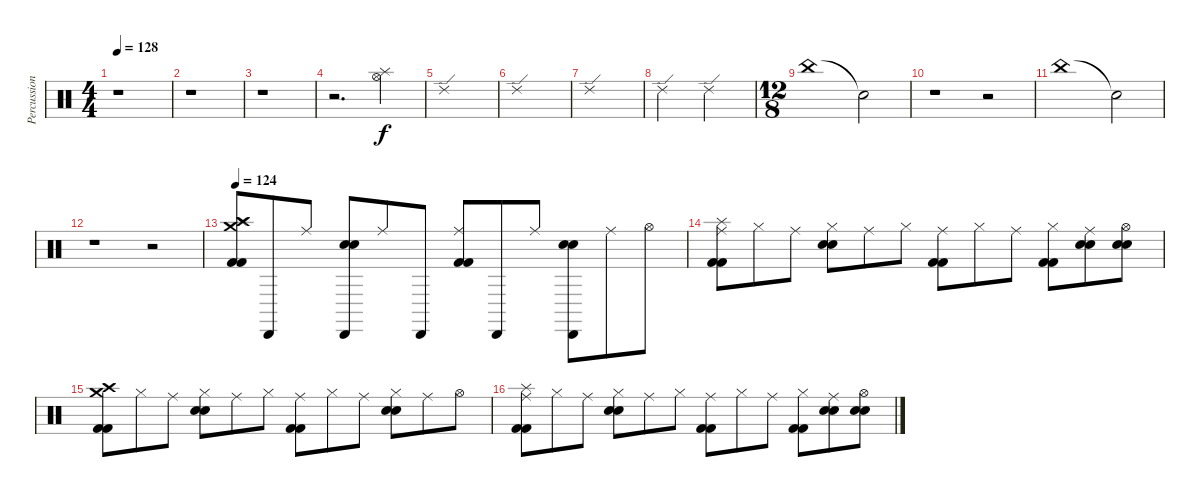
\track ("Percussioni" "Percussion") {instrument percussion}
\staff {score}
\articulation defaults
\ts (4 4)
\tempo 128
\clef neutral
\ks c
r.1{dy f} |
r.1 |
r.1 |
r.2{d} ("Hi-Hat (open)" "Splash (hit)").4 |
"Ride (edge) 2".1 |
"Ride (edge) 2".1 |
"Ride (edge) 2".1 |
"Ride (edge) 2".2 "Ride (edge) 2".2 |
\ts (12 8)
"China (hit)".1 "Snare (hit)"{t}.2 |
r.1 r.2 |
"China (hit)".1 "Snare (hit)"{t}.2 |
r.1 r.2 |
\tempo 120
\tempo 124
("Crash high (hit)" "Crash medium (hit)" "Splash (hit)" "Kick (hit) 2" "Kick (hit) 2").8 "Cabasa (hit)".8 "Ride (middle)".8 ("Cabasa (hit)" "Snare (hit) 2" "Electric Snare (hit)").8 "Ride (middle)".8 "Cabasa (hit)".8 ("Ride (middle)" "Kick (hit) 2" "Kick (hit) 2").8 "Cabasa (hit)".8 "Ride (middle)".8 ("Cabasa (hit)" "Snare (hit) 2" "Electric Snare (hit)").8 "Ride (middle)".8 "Hi-Hat (open)".8 |
("Ride (middle)" "Splash (hit)" "Kick (hit) 2" "Kick (hit) 2").8 "Hi-Hat (closed)".8 "Ride (middle)".8 ("Hi-Hat (closed)" "Snare (hit) 2" "Electric Snare (hit)").8 "Ride (middle)".8 "Hi-Hat (closed)".8 ("Ride (middle)" "Kick (hit) 2" "Kick (hit) 2").8 "Hi-Hat (closed)".8 "Ride (middle)".8 ("Hi-Hat (closed)" "Kick (hit) 2" "Kick (hit) 2").8 ("Ride (middle)" "Snare (hit) 2" "Electric Snare (hit)").8 ("Hi-Hat (open)" "Snare (hit) 2" "Electric Snare (hit)").8 |
("Crash high (hit)" "Crash medium (hit)" "Kick (hit) 2" "Kick (hit) 2").8 "Hi-Hat (closed)".8 "Ride (middle)".8 ("Hi-Hat (closed)" "Snare (hit) 2" "Electric Snare (hit)").8 "Ride (middle)".8 "Hi-Hat (closed)".8 ("Ride (middle)" "Kick (hit) 2" "Kick (hit) 2").8 "Hi-Hat (closed)".8 "Ride (middle)".8 ("Hi-Hat (closed)" "Snare (hit) 2" "Electric Snare (hit)").8 "Ride (middle)".8 "Hi-Hat (open)".8 |
("Ride (middle)" "Splash (hit)" "Kick (hit) 2" "Kick (hit) 2").8 "Hi-Hat (closed)".8 "Ride (middle)".8 ("Hi-Hat (closed)" "Snare (hit) 2" "Electric Snare (hit)").8 "Ride (middle)".8 "Hi-Hat (closed)".8 ("Ride (middle)" "Kick (hit) 2" "Kick (hit) 2").8 "Hi-Hat (closed)".8 "Ride (middle)".8 ("Hi-Hat (closed)" "Kick (hit) 2" "Kick (hit) 2").8 ("Ride (middle)" "Snare (hit) 2" "Electric Snare (hit)").8 ("Hi-Hat (open)" "Snare (hit) 2" "Electric Snare (hit)").8
